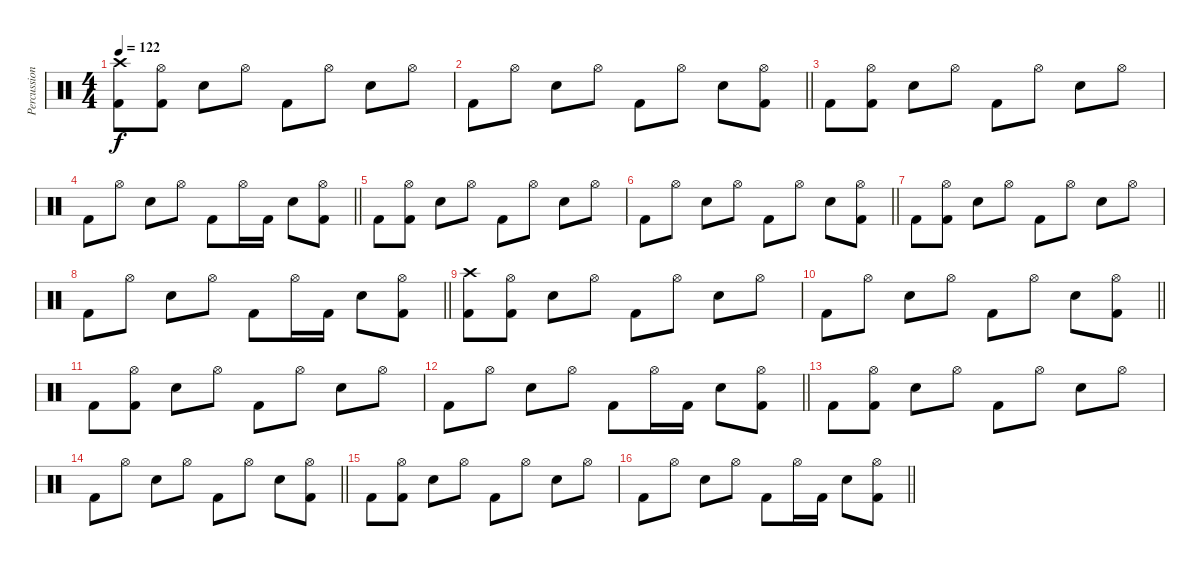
\track ("Percussion" "Percussion") {instrument percussion}
\staff {score}
\articulation defaults
\ts (4 4)
\tempo 122
\clef neutral
\ks c
("Crash high (hit)" "Kick (hit) 2").8{dy f} ("Hi-Hat (open)" "Kick (hit) 2").8 "Electric Snare (hit)".8 "Hi-Hat (open)".8 "Kick (hit) 2".8 "Hi-Hat (open)".8 "Electric Snare (hit)".8 "Hi-Hat (open)".8 |
\barLineRight lightlight "Kick (hit) 2".8 "Hi-Hat (open)".8 "Electric Snare (hit)".8 "Hi-Hat (open)".8 "Kick (hit) 2".8 "Hi-Hat (open)".8 "Electric Snare (hit)".8
("Hi-Hat (open)" "Kick (hit) 2").8 |
"Kick (hit) 2".8 ("Hi-Hat (open)" "Kick (hit) 2").8 "Electric Snare (hit)".8 "Hi-Hat (open)".8 "Kick (hit) 2".8 "Hi-Hat (open)".8 "Electric Snare (hit)".8 "Hi-Hat (open)".8 |
\barLineRight lightlight "Kick (hit) 2".8 "Hi-Hat (open)".8 "Electric Snare (hit)".8 "Hi-Hat (open)".8 "Kick (hit) 2".8 "Hi-Hat (open)".16 "Kick (hit) 2".16 "Electric Snare (hit)".8
("Hi-Hat (open)" "Kick (hit) 2").8 |
"Kick (hit) 2".8 ("Hi-Hat (open)" "Kick (hit) 2").8 "Electric Snare (hit)".8 "Hi-Hat (open)".8 "Kick (hit) 2".8 "Hi-Hat (open)".8 "Electric Snare (hit)".8 "Hi-Hat (open)".8 |
\barLineRight lightlight "Kick (hit) 2".8 "Hi-Hat (open)".8 "Electric Snare (hit)".8 "Hi-Hat (open)".8 "Kick (hit) 2".8 "Hi-Hat (open)".8 "Electric Snare (hit)".8
("Hi-Hat (open)" "Kick (hit) 2").8 |
"Kick (hit) 2".8 ("Hi-Hat (open)" "Kick (hit) 2").8 "Electric Snare (hit)".8 "Hi-Hat (open)".8 "Kick (hit) 2".8 "Hi-Hat (open)".8 "Electric Snare (hit)".8 "Hi-Hat (open)".8 |
\barLineRight lightlight "Kick (hit) 2".8 "Hi-Hat (open)".8 "Electric Snare (hit)".8 "Hi-Hat (open)".8 "Kick (hit) 2".8 "Hi-Hat (open)".16 "Kick (hit) 2".16 "Electric Snare (hit)".8
("Hi-Hat (open)" "Kick (hit) 2").8 |
("Crash high (hit)" "Kick (hit) 2").8 ("Hi-Hat (open)" "Kick (hit) 2").8 "Electric Snare (hit)".8 "Hi-Hat (open)".8 "Kick (hit) 2".8 "Hi-Hat (open)".8 "Electric Snare (hit)".8 "Hi-Hat (open)".8 |
\barLineRight lightlight "Kick (hit) 2".8 "Hi-Hat (open)".8 "Electric Snare (hit)".8 "Hi-Hat (open)".8 "Kick (hit) 2".8 "Hi-Hat (open)".8 "Electric Snare (hit)".8
("Hi-Hat (open)" "Kick (hit) 2").8 |
"Kick (hit) 2".8 ("Hi-Hat (open)" "Kick (hit) 2").8 "Electric Snare (hit)".8 "Hi-Hat (open)".8 "Kick (hit) 2".8 "Hi-Hat (open)".8 "Electric Snare (hit)".8 "Hi-Hat (open)".8 |
\barLineRight lightlight "Kick (hit) 2".8 "Hi-Hat (open)".8 "Electric Snare (hit)".8 "Hi-Hat (open)".8 "Kick (hit) 2".8 "Hi-Hat (open)".16 "Kick (hit) 2".16 "Electric Snare (hit)".8
("Hi-Hat (open)" "Kick (hit) 2").8 |
"Kick (hit) 2".8 ("Hi-Hat (open)" "Kick (hit) 2").8 "Electric Snare (hit)".8 "Hi-Hat (open)".8 "Kick (hit) 2".8 "Hi-Hat (open)".8 "Electric Snare (hit)".8 "Hi-Hat (open)".8 |
\barLineRight lightlight "Kick (hit) 2".8 "Hi-Hat (open)".8 "Electric Snare (hit)".8 "Hi-Hat (open)".8 "Kick (hit) 2".8 "Hi-Hat (open)".8 "Electric Snare (hit)".8
("Hi-Hat (open)" "Kick (hit) 2").8 |
"Kick (hit) 2".8 ("Hi-Hat (open)" "Kick (hit) 2").8 "Electric Snare (hit)".8 "Hi-Hat (open)".8 "Kick (hit) 2".8 "Hi-Hat (open)".8 "Electric Snare (hit)".8 "Hi-Hat (open)".8 |
\barLineRight lightlight "Kick (hit) 2".8 "Hi-Hat (open)".8 "Electric Snare (hit)".8 "Hi-Hat (open)".8 "Kick (hit) 2".8 "Hi-Hat (open)".16 "Kick (hit) 2".16 "Electric Snare (hit)".8
("Hi-Hat (open)" "Kick (hit) 2").8
